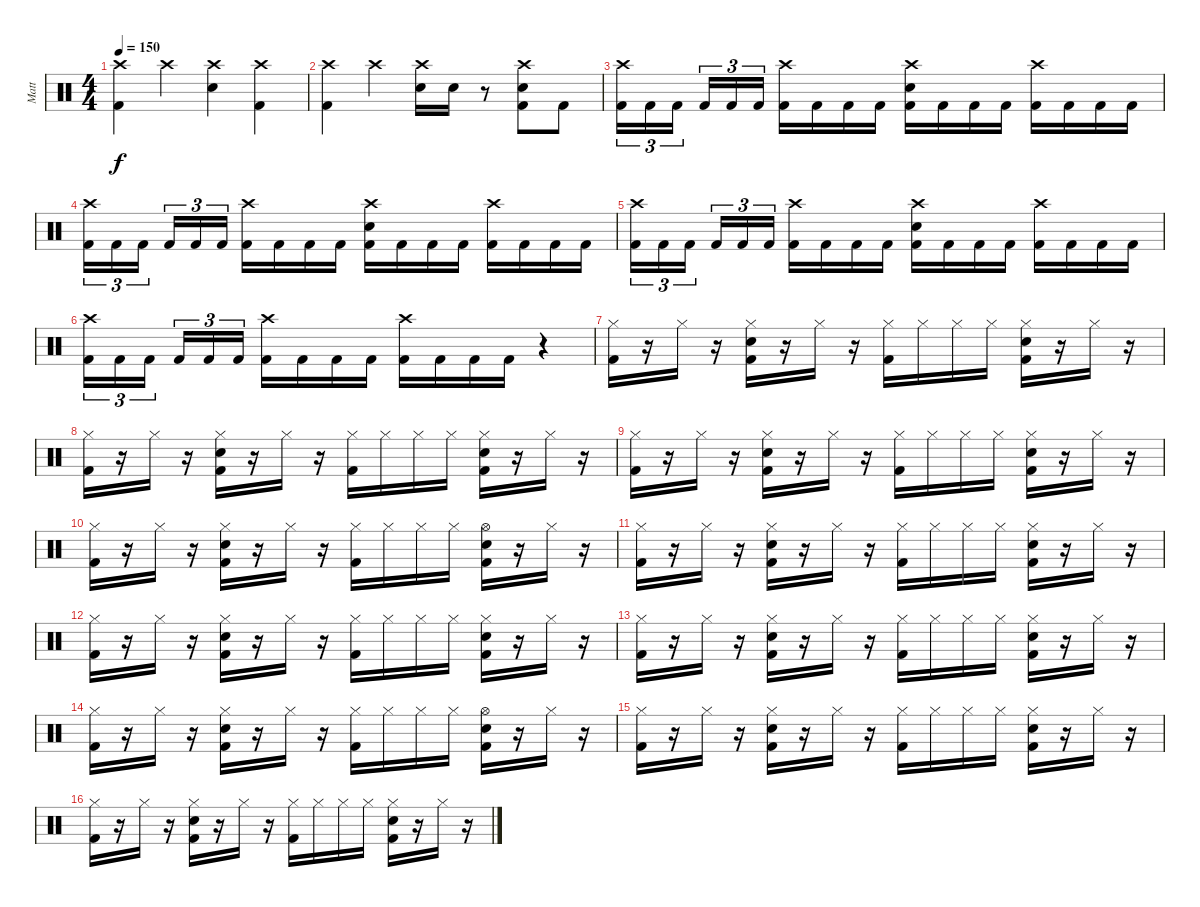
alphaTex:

\track ("Matt" "Matt") {instrument percussion}
\staff {score}
\articulation defaults
\ts (4 4)
\tempo 150
\clef neutral
\ks c
("Crash high (hit)" "Kick (hit) 2").4{dy f} "Crash high (hit)".4 ("Crash high (hit)" "Snare (hit) 2").4 ("Crash high (hit)" "Kick (hit) 2").4 |
("Crash high (hit)" "Kick (hit) 2").4 "Crash high (hit)".4 ("Crash high (hit)" "Snare (hit) 2").16 "Snare (hit) 2".16 r.8 ("Crash high (hit)" "Snare (hit) 2" "Kick (hit) 2").8 "Kick (hit) 2".8 |
("Crash high (hit)" "Kick (hit) 2").16{tu (3 2)} "Kick (hit) 2".16{tu (3 2)} "Kick (hit) 2".16{tu (3 2)} "Kick (hit) 2".16{tu (3 2)} "Kick (hit) 2".16{tu (3 2)} "Kick (hit) 2".16{tu (3 2)} ("Crash high (hit)" "Kick (hit) 2").16 "Kick (hit) 2".16 "Kick (hit) 2".16 "Kick (hit) 2".16 ("Crash high (hit)" "Snare (hit) 2" "Kick (hit) 2").16 "Kick (hit) 2".16 "Kick (hit) 2".16 "Kick (hit) 2".16 ("Crash high (hit)" "Kick (hit) 2").16 "Kick (hit) 2".16 "Kick (hit) 2".16 "Kick (hit) 2".16 |
("Crash high (hit)" "Kick (hit) 2").16{tu (3 2)} "Kick (hit) 2".16{tu (3 2)} "Kick (hit) 2".16{tu (3 2)} "Kick (hit) 2".16{tu (3 2)} "Kick (hit) 2".16{tu (3 2)} "Kick (hit) 2".16{tu (3 2)} ("Crash high (hit)" "Kick (hit) 2").16 "Kick (hit) 2".16 "Kick (hit) 2".16 "Kick (hit) 2".16 ("Crash high (hit)" "Snare (hit) 2" "Kick (hit) 2").16 "Kick (hit) 2".16 "Kick (hit) 2".16 "Kick (hit) 2".16 ("Crash high (hit)" "Kick (hit) 2").16 "Kick (hit) 2".16 "Kick (hit) 2".16 "Kick (hit) 2".16 |
("Crash high (hit)" "Kick (hit) 2").16{tu (3 2)} "Kick (hit) 2".16{tu (3 2)} "Kick (hit) 2".16{tu (3 2)} "Kick (hit) 2".16{tu (3 2)} "Kick (hit) 2".16{tu (3 2)} "Kick (hit) 2".16{tu (3 2)} ("Crash high (hit)" "Kick (hit) 2").16 "Kick (hit) 2".16 "Kick (hit) 2".16 "Kick (hit) 2".16 ("Crash high (hit)" "Snare (hit) 2" "Kick (hit) 2").16 "Kick (hit) 2".16 "Kick (hit) 2".16 "Kick (hit) 2".16 ("Crash high (hit)" "Kick (hit) 2").16 "Kick (hit) 2".16 "Kick (hit) 2".16 "Kick (hit) 2".16 |
("Crash high (hit)" "Kick (hit) 2").16{tu (3 2)} "Kick (hit) 2".16{tu (3 2)} "Kick (hit) 2".16{tu (3 2)} "Kick (hit) 2".16{tu (3 2)} "Kick (hit) 2".16{tu (3 2)} "Kick (hit) 2".16{tu (3 2)} ("Crash high (hit)" "Kick (hit) 2").16 "Kick (hit) 2".16 "Kick (hit) 2".16 "Kick (hit) 2".16 ("Crash high (hit)" "Kick (hit) 2").16 "Kick (hit) 2".16 "Kick (hit) 2".16 "Kick (hit) 2".16 r.4 |
("Hi-Hat (closed)" "Kick (hit) 2").16 r.16 "Hi-Hat (closed)".16 r.16 ("Hi-Hat (closed)" "Snare (hit) 2" "Kick (hit) 2").16 r.16 "Hi-Hat (closed)".16 r.16 ("Hi-Hat (closed)" "Kick (hit) 2").16 "Hi-Hat (closed)".16 "Hi-Hat (closed)".16 "Hi-Hat (closed)".16 ("Hi-Hat (closed)" "Snare (hit) 2" "Kick (hit) 2").16 r.16 "Hi-Hat (closed)".16 r.16 |
("Hi-Hat (closed)" "Kick (hit) 2").16 r.16 "Hi-Hat (closed)".16 r.16 ("Hi-Hat (closed)" "Snare (hit) 2" "Kick (hit) 2").16 r.16 "Hi-Hat (closed)".16 r.16 ("Hi-Hat (closed)" "Kick (hit) 2").16 "Hi-Hat (closed)".16 "Hi-Hat (closed)".16 "Hi-Hat (closed)".16 ("Hi-Hat (closed)" "Snare (hit) 2" "Kick (hit) 2").16 r.16 "Hi-Hat (closed)".16 r.16 |
("Hi-Hat (closed)" "Kick (hit) 2").16 r.16 "Hi-Hat (closed)".16 r.16 ("Hi-Hat (closed)" "Snare (hit) 2" "Kick (hit) 2").16 r.16 "Hi-Hat (closed)".16 r.16 ("Hi-Hat (closed)" "Kick (hit) 2").16 "Hi-Hat (closed)".16 "Hi-Hat (closed)".16 "Hi-Hat (closed)".16 ("Hi-Hat (closed)" "Snare (hit) 2" "Kick (hit) 2").16 r.16 "Hi-Hat (closed)".16 r.16 |
("Hi-Hat (closed)" "Kick (hit) 2").16 r.16 "Hi-Hat (closed)".16 r.16 ("Hi-Hat (closed)" "Snare (hit) 2" "Kick (hit) 2").16 r.16 "Hi-Hat (closed)".16 r.16 ("Hi-Hat (closed)" "Kick (hit) 2").16 "Hi-Hat (closed)".16 "Hi-Hat (closed)".16 "Hi-Hat (closed)".16 ("Hi-Hat (open)" "Snare (hit) 2" "Kick (hit) 2").16 r.16 "Hi-Hat (closed)".16 r.16 |
("Hi-Hat (closed)" "Kick (hit) 2").16 r.16 "Hi-Hat (closed)".16 r.16 ("Hi-Hat (closed)" "Snare (hit) 2" "Kick (hit) 2").16 r.16 "Hi-Hat (closed)".16 r.16 ("Hi-Hat (closed)" "Kick (hit) 2").16 "Hi-Hat (closed)".16 "Hi-Hat (closed)".16 "Hi-Hat (closed)".16 ("Hi-Hat (closed)" "Snare (hit) 2" "Kick (hit) 2").16 r.16 "Hi-Hat (closed)".16 r.16 |
("Hi-Hat (closed)" "Kick (hit) 2").16 r.16 "Hi-Hat (closed)".16 r.16 ("Hi-Hat (closed)" "Snare (hit) 2" "Kick (hit) 2").16 r.16 "Hi-Hat (closed)".16 r.16 ("Hi-Hat (closed)" "Kick (hit) 2").16 "Hi-Hat (closed)".16 "Hi-Hat (closed)".16 "Hi-Hat (closed)".16 ("Hi-Hat (closed)" "Snare (hit) 2" "Kick (hit) 2").16 r.16 "Hi-Hat (closed)".16 r.16 |
("Hi-Hat (closed)" "Kick (hit) 2").16 r.16 "Hi-Hat (closed)".16 r.16 ("Hi-Hat (closed)" "Snare (hit) 2" "Kick (hit) 2").16 r.16 "Hi-Hat (closed)".16 r.16 ("Hi-Hat (closed)" "Kick (hit) 2").16 "Hi-Hat (closed)".16 "Hi-Hat (closed)".16 "Hi-Hat (closed)".16 ("Hi-Hat (closed)" "Snare (hit) 2" "Kick (hit) 2").16 r.16 "Hi-Hat (closed)".16 r.16 |
("Hi-Hat (closed)" "Kick (hit) 2").16 r.16 "Hi-Hat (closed)".16 r.16 ("Hi-Hat (closed)" "Snare (hit) 2" "Kick (hit) 2").16 r.16 "Hi-Hat (closed)".16 r.16 ("Hi-Hat (closed)" "Kick (hit) 2").16 "Hi-Hat (closed)".16 "Hi-Hat (closed)".16 "Hi-Hat (closed)".16 ("Hi-Hat (open)" "Snare (hit) 2" "Kick (hit) 2").16 r.16 "Hi-Hat (closed)".16 r.16 |
("Hi-Hat (closed)" "Kick (hit) 2").16 r.16 "Hi-Hat (closed)".16 r.16 ("Hi-Hat (closed)" "Snare (hit) 2" "Kick (hit) 2").16 r.16 "Hi-Hat (closed)".16 r.16 ("Hi-Hat (closed)" "Kick (hit) 2").16 "Hi-Hat (closed)".16 "Hi-Hat (closed)".16 "Hi-Hat (closed)".16 ("Hi-Hat (closed)" "Snare (hit) 2" "Kick (hit) 2").16 r.16 "Hi-Hat (closed)".16 r.16 |
("Hi-Hat (closed)" "Kick (hit) 2").16 r.16 "Hi-Hat (closed)".16 r.16 ("Hi-Hat (closed)" "Snare (hit) 2" "Kick (hit) 2").16 r.16 "Hi-Hat (closed)".16 r.16 ("Hi-Hat (closed)" "Kick (hit) 2").16 "Hi-Hat (closed)".16 "Hi-Hat (closed)".16 "Hi-Hat (closed)".16 ("Hi-Hat (closed)" "Snare (hit) 2" "Kick (hit) 2").16 r.16 "Hi-Hat (closed)".16 r.16
